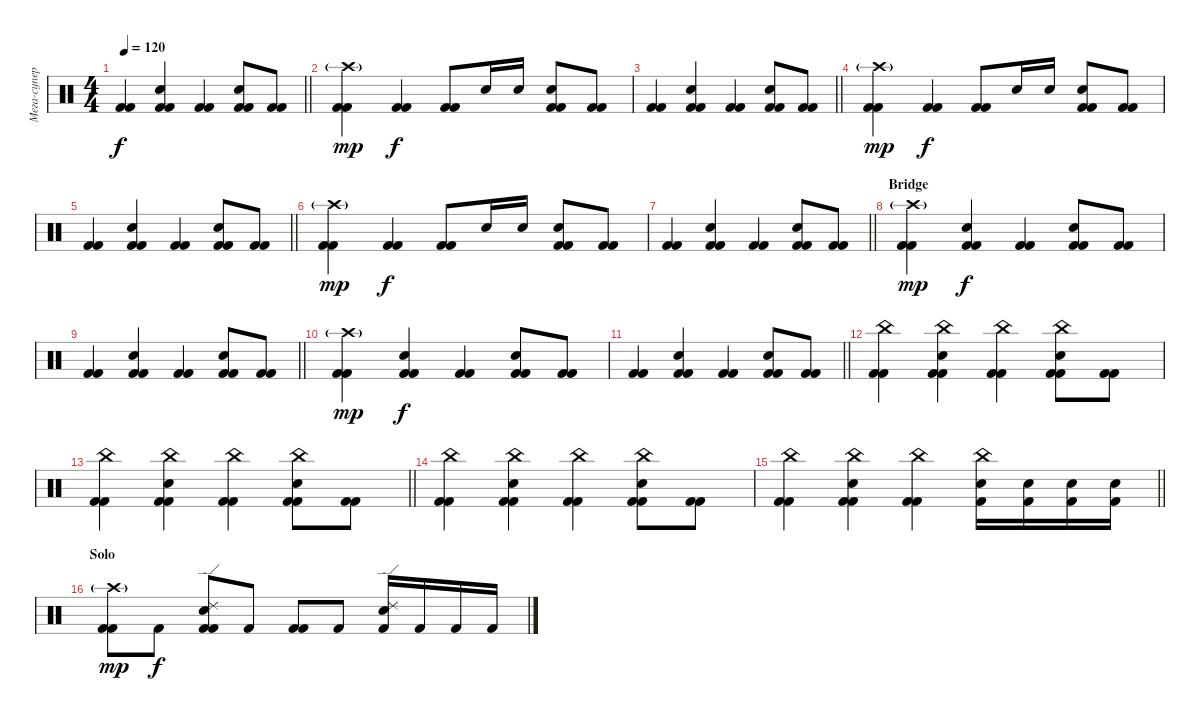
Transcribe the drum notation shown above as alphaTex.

\track ("Мега-супер-охеренный драммер" "Мега-супер") {instrument percussion}
\staff {score}
\articulation defaults
\ts (4 4)
\tempo 120
\clef neutral
\barLineRight lightlight
\ks c
("Kick (hit) 2" "Kick (hit) 2").4{dy f} ("Electric Snare (hit)" "Kick (hit) 2" "Kick (hit) 2").4 ("Kick (hit) 2" "Kick (hit) 2").4 ("Electric Snare (hit)" "Kick (hit) 2" "Kick (hit) 2").8 ("Kick (hit) 2" "Kick (hit) 2").8 |
("Crash high (hit)"{g} "Kick (hit) 2" "Kick (hit) 2").4{dy mp} ("Kick (hit) 2" "Kick (hit) 2").4{dy f} ("Kick (hit) 2" "Kick (hit) 2").8 "Electric Snare (hit)".16 "Electric Snare (hit)".16 ("Electric Snare (hit)" "Kick (hit) 2" "Kick (hit) 2").8 ("Kick (hit) 2" "Kick (hit) 2").8 |
\barLineRight lightlight
("Kick (hit) 2" "Kick (hit) 2").4 ("Electric Snare (hit)" "Kick (hit) 2" "Kick (hit) 2").4 ("Kick (hit) 2" "Kick (hit) 2").4 ("Electric Snare (hit)" "Kick (hit) 2" "Kick (hit) 2").8 ("Kick (hit) 2" "Kick (hit) 2").8 |
("Crash high (hit)"{g} "Kick (hit) 2" "Kick (hit) 2").4{dy mp} ("Kick (hit) 2" "Kick (hit) 2").4{dy f} ("Kick (hit) 2" "Kick (hit) 2").8 "Electric Snare (hit)".16 "Electric Snare (hit)".16 ("Electric Snare (hit)" "Kick (hit) 2" "Kick (hit) 2").8 ("Kick (hit) 2" "Kick (hit) 2").8 |
\barLineRight lightlight
("Kick (hit) 2" "Kick (hit) 2").4 ("Electric Snare (hit)" "Kick (hit) 2" "Kick (hit) 2").4 ("Kick (hit) 2" "Kick (hit) 2").4 ("Electric Snare (hit)" "Kick (hit) 2" "Kick (hit) 2").8 ("Kick (hit) 2" "Kick (hit) 2").8 |
("Crash high (hit)"{g} "Kick (hit) 2" "Kick (hit) 2").4{dy mp} ("Kick (hit) 2" "Kick (hit) 2").4{dy f} ("Kick (hit) 2" "Kick (hit) 2").8 "Electric Snare (hit)".16 "Electric Snare (hit)".16 ("Electric Snare (hit)" "Kick (hit) 2" "Kick (hit) 2").8 ("Kick (hit) 2" "Kick (hit) 2").8 |
\barLineRight lightlight
("Kick (hit) 2" "Kick (hit) 2").4 ("Electric Snare (hit)" "Kick (hit) 2" "Kick (hit) 2").4 ("Kick (hit) 2" "Kick (hit) 2").4 ("Electric Snare (hit)" "Kick (hit) 2" "Kick (hit) 2").8 ("Kick (hit) 2" "Kick (hit) 2").8 |
\section ("" "Bridge")
("Crash high (hit)"{g} "Kick (hit) 2" "Kick (hit) 2").4{dy mp} ("Electric Snare (hit)" "Kick (hit) 2" "Kick (hit) 2").4{dy f} ("Kick (hit) 2" "Kick (hit) 2").4 ("Electric Snare (hit)" "Kick (hit) 2" "Kick (hit) 2").8 ("Kick (hit) 2" "Kick (hit) 2").8 |
\barLineRight lightlight
("Kick (hit) 2" "Kick (hit) 2").4 ("Electric Snare (hit)" "Kick (hit) 2" "Kick (hit) 2").4 ("Kick (hit) 2" "Kick (hit) 2").4 ("Electric Snare (hit)" "Kick (hit) 2" "Kick (hit) 2").8 ("Kick (hit) 2" "Kick (hit) 2").8 |
("Crash high (hit)"{g} "Kick (hit) 2" "Kick (hit) 2").4{dy mp} ("Electric Snare (hit)" "Kick (hit) 2" "Kick (hit) 2").4{dy f} ("Kick (hit) 2" "Kick (hit) 2").4 ("Electric Snare (hit)" "Kick (hit) 2" "Kick (hit) 2").8 ("Kick (hit) 2" "Kick (hit) 2").8 |
\barLineRight lightlight
("Kick (hit) 2" "Kick (hit) 2").4 ("Electric Snare (hit)" "Kick (hit) 2" "Kick (hit) 2").4 ("Kick (hit) 2" "Kick (hit) 2").4 ("Electric Snare (hit)" "Kick (hit) 2" "Kick (hit) 2").8 ("Kick (hit) 2" "Kick (hit) 2").8 |
("China (hit)" "Kick (hit) 2" "Kick (hit) 2").4 ("China (hit)" "Electric Snare (hit)" "Kick (hit) 2" "Kick (hit) 2").4 ("China (hit)" "Kick (hit) 2" "Kick (hit) 2").4 ("China (hit)" "Electric Snare (hit)" "Kick (hit) 2" "Kick (hit) 2").8 ("Kick (hit) 2" "Kick (hit) 2").8 |
\barLineRight lightlight
("China (hit)" "Kick (hit) 2" "Kick (hit) 2").4 ("China (hit)" "Electric Snare (hit)" "Kick (hit) 2" "Kick (hit) 2").4 ("China (hit)" "Kick (hit) 2" "Kick (hit) 2").4 ("China (hit)" "Electric Snare (hit)" "Kick (hit) 2" "Kick (hit) 2").8 ("Kick (hit) 2" "Kick (hit) 2").8 |
("China (hit)" "Kick (hit) 2" "Kick (hit) 2").4 ("China (hit)" "Electric Snare (hit)" "Kick (hit) 2" "Kick (hit) 2").4 ("China (hit)" "Kick (hit) 2" "Kick (hit) 2").4 ("China (hit)" "Electric Snare (hit)" "Kick (hit) 2" "Kick (hit) 2").8 ("Kick (hit) 2" "Kick (hit) 2").8 |
\barLineRight lightlight
("China (hit)" "Kick (hit) 2" "Kick (hit) 2").4 ("China (hit)" "Electric Snare (hit)" "Kick (hit) 2" "Kick (hit) 2").4 ("China (hit)" "Kick (hit) 2" "Kick (hit) 2").4 ("China (hit)" "Electric Snare (hit)" "Kick (hit) 2").16 ("Electric Snare (hit)" "Kick (hit) 2").16 ("Electric Snare (hit)" "Kick (hit) 2").16 ("Electric Snare (hit)" "Kick (hit) 2").16 |
\section ("" "Solo")
("Crash high (hit)"{g} "Kick (hit) 2" "Kick (hit) 2").8{dy mp} "Kick (hit) 2".8{dy f} ("Ride (edge) 2" "Electric Snare (hit)" "Kick (hit) 2" "Kick (hit) 2").8 "Kick (hit) 2".8 ("Kick (hit) 2" "Kick (hit) 2").8 "Kick (hit) 2".8 ("Ride (edge) 2" "Electric Snare (hit)" "Kick (hit) 2").16 "Kick (hit) 2".16 "Kick (hit) 2".16 "Kick (hit) 2".16
